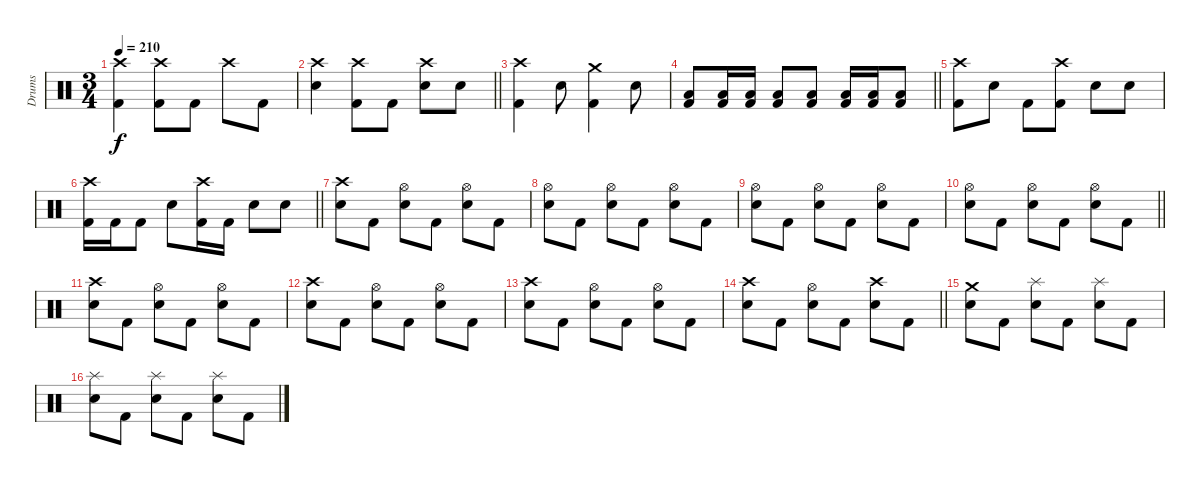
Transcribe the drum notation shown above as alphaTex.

\track ("Drums" "Drums") {instrument percussion}
\staff {score}
\articulation defaults
\ts (3 4)
\tempo 210
\clef neutral
\ks c
("Crash high (hit)" "Kick (hit) 2").4{dy f} ("Crash high (hit)" "Kick (hit) 2").8 "Kick (hit) 2".8 "Crash high (hit)".8 "Kick (hit) 2".8 |
\barLineRight lightlight
("Crash high (hit)" "Electric Snare (hit)").4 ("Crash high (hit)" "Kick (hit) 2").8 "Kick (hit) 2".8 ("Crash high (hit)" "Electric Snare (hit)").8 "Electric Snare (hit)".8 |
("Crash high (hit)" "Kick (hit) 2").4 "Electric Snare (hit)".8 ("Crash medium (hit)" "Kick (hit) 2").4 "Electric Snare (hit)".8 |
\barLineRight lightlight
("Low Tom (hit)" "Kick (hit) 2").8 ("Low Tom (hit)" "Kick (hit) 2").16 ("Low Tom (hit)" "Kick (hit) 2").16 ("Low Tom (hit)" "Kick (hit) 2").8 ("Low Tom (hit)" "Kick (hit) 2").8 ("Low Tom (hit)" "Kick (hit) 2").16 ("Low Tom (hit)" "Kick (hit) 2").16 ("Low Tom (hit)" "Kick (hit) 2").8 |
("Crash high (hit)" "Kick (hit) 2").8 "Electric Snare (hit)".8 "Kick (hit) 2".8 ("Crash high (hit)" "Kick (hit) 2").8 "Electric Snare (hit)".8 "Electric Snare (hit)".8 |
\barLineRight lightlight
("Crash high (hit)" "Kick (hit) 2").16 "Kick (hit) 2".16 "Kick (hit) 2".8 "Electric Snare (hit)".8 ("Crash high (hit)" "Kick (hit) 2").16 "Kick (hit) 2".16 "Electric Snare (hit)".8 "Electric Snare (hit)".8 |
("Crash high (hit)" "Electric Snare (hit)").8 "Kick (hit) 2".8 ("Hi-Hat (open)" "Electric Snare (hit)").8 "Kick (hit) 2".8 ("Hi-Hat (open)" "Electric Snare (hit)").8 "Kick (hit) 2".8 |
("Hi-Hat (open)" "Electric Snare (hit)").8 "Kick (hit) 2".8 ("Hi-Hat (open)" "Electric Snare (hit)").8 "Kick (hit) 2".8 ("Hi-Hat (open)" "Electric Snare (hit)").8 "Kick (hit) 2".8 |
("Hi-Hat (open)" "Electric Snare (hit)").8 "Kick (hit) 2".8 ("Hi-Hat (open)" "Electric Snare (hit)").8 "Kick (hit) 2".8 ("Hi-Hat (open)" "Electric Snare (hit)").8 "Kick (hit) 2".8 |
\barLineRight lightlight
("Hi-Hat (open)" "Electric Snare (hit)").8 "Kick (hit) 2".8 ("Hi-Hat (open)" "Electric Snare (hit)").8 "Kick (hit) 2".8 ("Hi-Hat (open)" "Electric Snare (hit)").8 "Kick (hit) 2".8 |
("Crash high (hit)" "Electric Snare (hit)").8 "Kick (hit) 2".8 ("Hi-Hat (open)" "Electric Snare (hit)").8 "Kick (hit) 2".8 ("Hi-Hat (open)" "Electric Snare (hit)").8 "Kick (hit) 2".8 |
("Crash high (hit)" "Electric Snare (hit)").8 "Kick (hit) 2".8 ("Hi-Hat (open)" "Electric Snare (hit)").8 "Kick (hit) 2".8 ("Hi-Hat (open)" "Electric Snare (hit)").8 "Kick (hit) 2".8 |
("Crash high (hit)" "Electric Snare (hit)").8 "Kick (hit) 2".8 ("Hi-Hat (open)" "Electric Snare (hit)").8 "Kick (hit) 2".8 ("Hi-Hat (open)" "Electric Snare (hit)").8 "Kick (hit) 2".8 |
\barLineRight lightlight
("Crash high (hit)" "Electric Snare (hit)").8 "Kick (hit) 2".8 ("Hi-Hat (open)" "Electric Snare (hit)").8 "Kick (hit) 2".8 ("Crash high (hit)" "Electric Snare (hit)").8 "Kick (hit) 2".8 |
("Crash medium (hit)" "Electric Snare (hit)").8 "Kick (hit) 2".8 ("Splash (hit)" "Electric Snare (hit)").8 "Kick (hit) 2".8 ("Splash (hit)" "Electric Snare (hit)").8 "Kick (hit) 2".8 |
("Splash (hit)" "Electric Snare (hit)").8 "Kick (hit) 2".8 ("Splash (hit)" "Electric Snare (hit)").8 "Kick (hit) 2".8 ("Splash (hit)" "Electric Snare (hit)").8 "Kick (hit) 2".8
